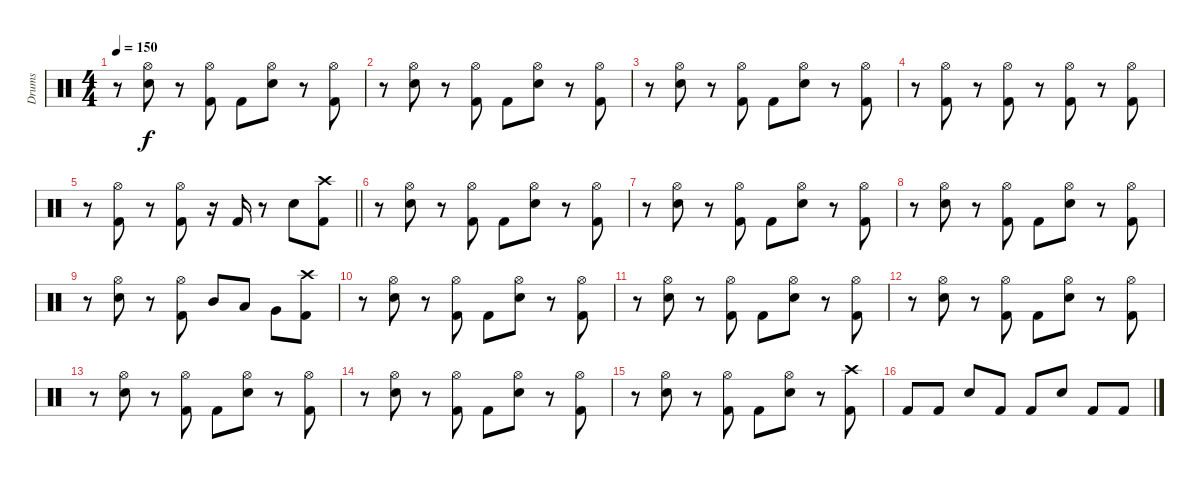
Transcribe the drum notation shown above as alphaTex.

\track ("Drums" "Drums") {instrument percussion}
\staff {score}
\articulation defaults
\ts (4 4)
\tempo 150
\clef neutral
\ks c
r.8{dy f} ("Snare (hit) 2" "Hi-Hat (open)").8 r.8 ("Kick (hit) 2" "Hi-Hat (open)").8 "Kick (hit) 2".8 ("Snare (hit) 2" "Hi-Hat (open)").8 r.8 ("Kick (hit) 2" "Hi-Hat (open)").8 |
r.8 ("Snare (hit) 2" "Hi-Hat (open)").8 r.8 ("Kick (hit) 2" "Hi-Hat (open)").8 "Kick (hit) 2".8 ("Snare (hit) 2" "Hi-Hat (open)").8 r.8 ("Kick (hit) 2" "Hi-Hat (open)").8 |
r.8 ("Snare (hit) 2" "Hi-Hat (open)").8 r.8 ("Kick (hit) 2" "Hi-Hat (open)").8 "Kick (hit) 2".8 ("Snare (hit) 2" "Hi-Hat (open)").8 r.8 ("Kick (hit) 2" "Hi-Hat (open)").8 |
r.8 ("Kick (hit) 2" "Hi-Hat (open)").8 r.8 ("Kick (hit) 2" "Hi-Hat (open)").8 r.8 ("Kick (hit) 2" "Hi-Hat (open)").8 r.8 ("Kick (hit) 2" "Hi-Hat (open)").8 |
\barLineRight lightlight
r.8 ("Kick (hit) 2" "Hi-Hat (open)").8 r.8 ("Kick (hit) 2" "Hi-Hat (open)").8 r.16 "Kick (hit) 2".16 r.8 "Snare (hit) 2".8 ("Kick (hit) 2" "Crash high (hit)").8 |
\section ("" "")
r.8 ("Snare (hit) 2" "Hi-Hat (open)").8 r.8 ("Kick (hit) 2" "Hi-Hat (open)").8 "Kick (hit) 2".8 ("Snare (hit) 2" "Hi-Hat (open)").8 r.8 ("Kick (hit) 2" "Hi-Hat (open)").8 |
r.8 ("Snare (hit) 2" "Hi-Hat (open)").8 r.8 ("Kick (hit) 2" "Hi-Hat (open)").8 "Kick (hit) 2".8 ("Snare (hit) 2" "Hi-Hat (open)").8 r.8 ("Kick (hit) 2" "Hi-Hat (open)").8 |
r.8 ("Snare (hit) 2" "Hi-Hat (open)").8 r.8 ("Kick (hit) 2" "Hi-Hat (open)").8 "Kick (hit) 2".8 ("Snare (hit) 2" "Hi-Hat (open)").8 r.8 ("Kick (hit) 2" "Hi-Hat (open)").8 |
r.8 ("Snare (hit) 2" "Hi-Hat (open)").8 r.8 ("Kick (hit) 2" "Hi-Hat (open)").8 "Mid Tom (hit)".8 "Low Tom (hit)".8 "Very Low Tom (hit)".8 ("Kick (hit) 2" "Crash high (hit)").8 |
r.8 ("Snare (hit) 2" "Hi-Hat (open)").8 r.8 ("Kick (hit) 2" "Hi-Hat (open)").8 "Kick (hit) 2".8 ("Snare (hit) 2" "Hi-Hat (open)").8 r.8 ("Kick (hit) 2" "Hi-Hat (open)").8 |
r.8 ("Snare (hit) 2" "Hi-Hat (open)").8 r.8 ("Kick (hit) 2" "Hi-Hat (open)").8 "Kick (hit) 2".8 ("Snare (hit) 2" "Hi-Hat (open)").8 r.8 ("Kick (hit) 2" "Hi-Hat (open)").8 |
r.8 ("Snare (hit) 2" "Hi-Hat (open)").8 r.8 ("Kick (hit) 2" "Hi-Hat (open)").8 "Kick (hit) 2".8 ("Snare (hit) 2" "Hi-Hat (open)").8 r.8 ("Kick (hit) 2" "Hi-Hat (open)").8 |
r.8 ("Snare (hit) 2" "Hi-Hat (open)").8 r.8 ("Kick (hit) 2" "Hi-Hat (open)").8 "Kick (hit) 2".8 ("Snare (hit) 2" "Hi-Hat (open)").8 r.8 ("Kick (hit) 2" "Hi-Hat (open)").8 |
r.8 ("Snare (hit) 2" "Hi-Hat (open)").8 r.8 ("Kick (hit) 2" "Hi-Hat (open)").8 "Kick (hit) 2".8 ("Snare (hit) 2" "Hi-Hat (open)").8 r.8 ("Kick (hit) 2" "Hi-Hat (open)").8 |
r.8 ("Snare (hit) 2" "Hi-Hat (open)").8 r.8 ("Kick (hit) 2" "Hi-Hat (open)").8 "Kick (hit) 2".8 ("Snare (hit) 2" "Hi-Hat (open)").8 r.8 ("Kick (hit) 2" "Crash high (hit)").8 |
"Kick (hit) 2".8 "Kick (hit) 2".8 "Snare (hit) 2".8 "Kick (hit) 2".8 "Kick (hit) 2".8 "Snare (hit) 2".8 "Kick (hit) 2".8 "Kick (hit) 2".8
